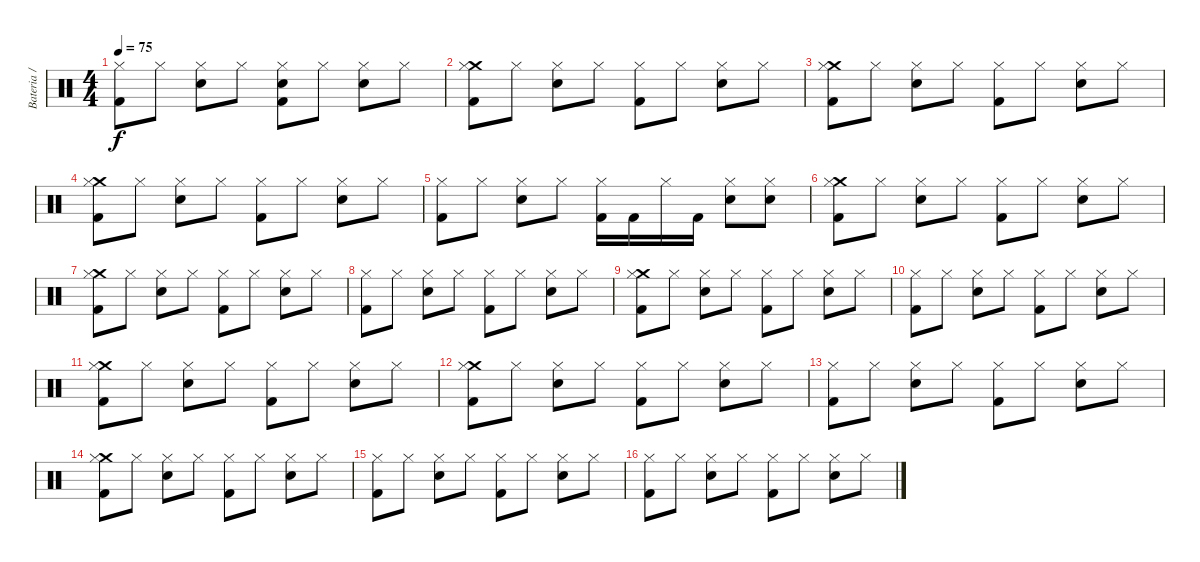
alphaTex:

\track ("Bateria / Ringo" "Bateria / ") {instrument percussion}
\staff {score}
\articulation defaults
\ts (4 4)
\tempo 75
\clef neutral
\ks c
("Hi-Hat (closed)" "Kick (hit) 2").8{dy f} "Hi-Hat (closed)".8 ("Snare (hit) 2" "Hi-Hat (closed)").8 "Hi-Hat (closed)".8 ("Snare (hit) 2" "Hi-Hat (closed)" "Kick (hit) 2").8 "Hi-Hat (closed)".8 ("Snare (hit) 2" "Hi-Hat (closed)").8 "Hi-Hat (closed)".8 |
("Crash medium (hit)" "Hi-Hat (closed)" "Kick (hit) 2").8 "Hi-Hat (closed)".8 ("Snare (hit) 2" "Hi-Hat (closed)").8 "Hi-Hat (closed)".8 ("Hi-Hat (closed)" "Kick (hit) 2").8 "Hi-Hat (closed)".8 ("Snare (hit) 2" "Hi-Hat (closed)").8 "Hi-Hat (closed)".8 |
("Crash medium (hit)" "Hi-Hat (closed)" "Kick (hit) 2").8 "Hi-Hat (closed)".8 ("Snare (hit) 2" "Hi-Hat (closed)").8 "Hi-Hat (closed)".8 ("Hi-Hat (closed)" "Kick (hit) 2").8 "Hi-Hat (closed)".8 ("Snare (hit) 2" "Hi-Hat (closed)").8 "Hi-Hat (closed)".8 |
("Crash medium (hit)" "Hi-Hat (closed)" "Kick (hit) 2").8 "Hi-Hat (closed)".8 ("Snare (hit) 2" "Hi-Hat (closed)").8 "Hi-Hat (closed)".8 ("Hi-Hat (closed)" "Kick (hit) 2").8 "Hi-Hat (closed)".8 ("Snare (hit) 2" "Hi-Hat (closed)").8 "Hi-Hat (closed)".8 |
("Hi-Hat (closed)" "Kick (hit) 2").8 "Hi-Hat (closed)".8 ("Snare (hit) 2" "Hi-Hat (closed)").8 "Hi-Hat (closed)".8 ("Hi-Hat (closed)" "Kick (hit) 2").16 "Kick (hit) 2".16 "Hi-Hat (closed)".16 "Kick (hit) 2".16 ("Snare (hit) 2" "Hi-Hat (closed)").8 ("Snare (hit) 2" "Hi-Hat (closed)").8 |
("Crash medium (hit)" "Hi-Hat (closed)" "Kick (hit) 2").8 "Hi-Hat (closed)".8 ("Snare (hit) 2" "Hi-Hat (closed)").8 "Hi-Hat (closed)".8 ("Hi-Hat (closed)" "Kick (hit) 2").8 "Hi-Hat (closed)".8 ("Snare (hit) 2" "Hi-Hat (closed)").8 "Hi-Hat (closed)".8 |
("Crash medium (hit)" "Hi-Hat (closed)" "Kick (hit) 2").8 "Hi-Hat (closed)".8 ("Snare (hit) 2" "Hi-Hat (closed)").8 "Hi-Hat (closed)".8 ("Hi-Hat (closed)" "Kick (hit) 2").8 "Hi-Hat (closed)".8 ("Snare (hit) 2" "Hi-Hat (closed)").8 "Hi-Hat (closed)".8 |
("Hi-Hat (closed)" "Kick (hit) 2").8 "Hi-Hat (closed)".8 ("Snare (hit) 2" "Hi-Hat (closed)").8 "Hi-Hat (closed)".8 ("Hi-Hat (closed)" "Kick (hit) 2").8 "Hi-Hat (closed)".8 ("Snare (hit) 2" "Hi-Hat (closed)").8 "Hi-Hat (closed)".8 |
("Crash medium (hit)" "Hi-Hat (closed)" "Kick (hit) 2").8 "Hi-Hat (closed)".8 ("Snare (hit) 2" "Hi-Hat (closed)").8 "Hi-Hat (closed)".8 ("Hi-Hat (closed)" "Kick (hit) 2").8 "Hi-Hat (closed)".8 ("Snare (hit) 2" "Hi-Hat (closed)").8 "Hi-Hat (closed)".8 |
("Hi-Hat (closed)" "Kick (hit) 2").8 "Hi-Hat (closed)".8 ("Snare (hit) 2" "Hi-Hat (closed)").8 "Hi-Hat (closed)".8 ("Hi-Hat (closed)" "Kick (hit) 2").8 "Hi-Hat (closed)".8 ("Snare (hit) 2" "Hi-Hat (closed)").8 "Hi-Hat (closed)".8 |
("Crash medium (hit)" "Hi-Hat (closed)" "Kick (hit) 2").8 "Hi-Hat (closed)".8 ("Snare (hit) 2" "Hi-Hat (closed)").8 "Hi-Hat (closed)".8 ("Hi-Hat (closed)" "Kick (hit) 2").8 "Hi-Hat (closed)".8 ("Snare (hit) 2" "Hi-Hat (closed)").8 "Hi-Hat (closed)".8 |
("Crash medium (hit)" "Hi-Hat (closed)" "Kick (hit) 2").8 "Hi-Hat (closed)".8 ("Snare (hit) 2" "Hi-Hat (closed)").8 "Hi-Hat (closed)".8 ("Hi-Hat (closed)" "Kick (hit) 2").8 "Hi-Hat (closed)".8 ("Snare (hit) 2" "Hi-Hat (closed)").8 "Hi-Hat (closed)".8 |
("Hi-Hat (closed)" "Kick (hit) 2").8 "Hi-Hat (closed)".8 ("Snare (hit) 2" "Hi-Hat (closed)").8 "Hi-Hat (closed)".8 ("Hi-Hat (closed)" "Kick (hit) 2").8 "Hi-Hat (closed)".8 ("Snare (hit) 2" "Hi-Hat (closed)").8 "Hi-Hat (closed)".8 |
("Crash medium (hit)" "Hi-Hat (closed)" "Kick (hit) 2").8 "Hi-Hat (closed)".8 ("Snare (hit) 2" "Hi-Hat (closed)").8 "Hi-Hat (closed)".8 ("Hi-Hat (closed)" "Kick (hit) 2").8 "Hi-Hat (closed)".8 ("Snare (hit) 2" "Hi-Hat (closed)").8 "Hi-Hat (closed)".8 |
("Hi-Hat (closed)" "Kick (hit) 2").8 "Hi-Hat (closed)".8 ("Snare (hit) 2" "Hi-Hat (closed)").8 "Hi-Hat (closed)".8 ("Hi-Hat (closed)" "Kick (hit) 2").8 "Hi-Hat (closed)".8 ("Snare (hit) 2" "Hi-Hat (closed)").8 "Hi-Hat (closed)".8 |
("Hi-Hat (closed)" "Kick (hit) 2").8 "Hi-Hat (closed)".8 ("Snare (hit) 2" "Hi-Hat (closed)").8 "Hi-Hat (closed)".8 ("Hi-Hat (closed)" "Kick (hit) 2").8 "Hi-Hat (closed)".8 ("Snare (hit) 2" "Hi-Hat (closed)").8 "Hi-Hat (closed)".8
